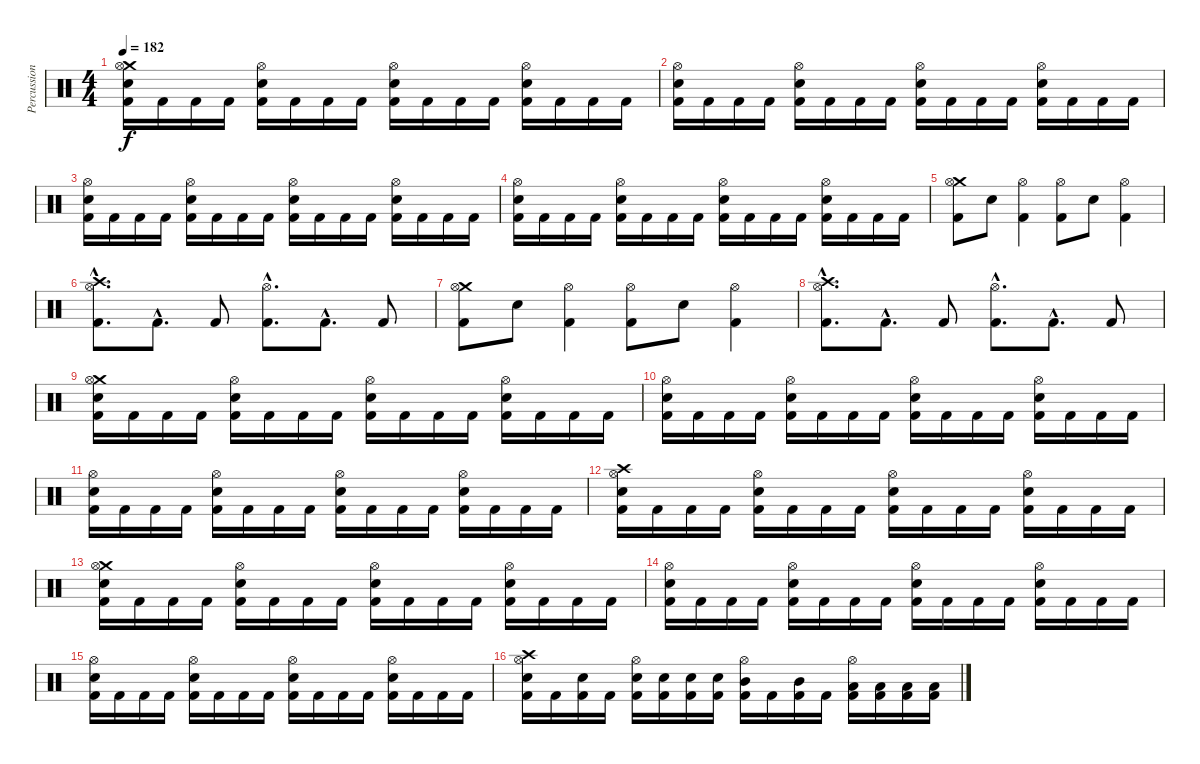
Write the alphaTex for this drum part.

\track ("Percussion" "Percussion") {instrument percussion}
\staff {score}
\articulation defaults
\ts (4 4)
\tempo 182
\clef neutral
\ks c
("Crash medium (hit)" "Hi-Hat (open)" "Electric Snare (hit)" "Kick (hit) 2").16{dy f} "Kick (hit) 2".16 "Kick (hit) 2".16 "Kick (hit) 2".16 ("Hi-Hat (open)" "Electric Snare (hit)" "Kick (hit) 2").16 "Kick (hit) 2".16 "Kick (hit) 2".16 "Kick (hit) 2".16 ("Hi-Hat (open)" "Electric Snare (hit)" "Kick (hit) 2").16 "Kick (hit) 2".16 "Kick (hit) 2".16 "Kick (hit) 2".16 ("Hi-Hat (open)" "Electric Snare (hit)" "Kick (hit) 2").16 "Kick (hit) 2".16 "Kick (hit) 2".16 "Kick (hit) 2".16 |
("Hi-Hat (open)" "Electric Snare (hit)" "Kick (hit) 2").16 "Kick (hit) 2".16 "Kick (hit) 2".16 "Kick (hit) 2".16 ("Hi-Hat (open)" "Electric Snare (hit)" "Kick (hit) 2").16 "Kick (hit) 2".16 "Kick (hit) 2".16 "Kick (hit) 2".16 ("Hi-Hat (open)" "Electric Snare (hit)" "Kick (hit) 2").16 "Kick (hit) 2".16 "Kick (hit) 2".16 "Kick (hit) 2".16 ("Hi-Hat (open)" "Electric Snare (hit)" "Kick (hit) 2").16 "Kick (hit) 2".16 "Kick (hit) 2".16 "Kick (hit) 2".16 |
("Hi-Hat (open)" "Electric Snare (hit)" "Kick (hit) 2").16 "Kick (hit) 2".16 "Kick (hit) 2".16 "Kick (hit) 2".16 ("Hi-Hat (open)" "Electric Snare (hit)" "Kick (hit) 2").16 "Kick (hit) 2".16 "Kick (hit) 2".16 "Kick (hit) 2".16 ("Hi-Hat (open)" "Electric Snare (hit)" "Kick (hit) 2").16 "Kick (hit) 2".16 "Kick (hit) 2".16 "Kick (hit) 2".16 ("Hi-Hat (open)" "Electric Snare (hit)" "Kick (hit) 2").16 "Kick (hit) 2".16 "Kick (hit) 2".16 "Kick (hit) 2".16 |
("Hi-Hat (open)" "Electric Snare (hit)" "Kick (hit) 2").16 "Kick (hit) 2".16 "Kick (hit) 2".16 "Kick (hit) 2".16 ("Hi-Hat (open)" "Electric Snare (hit)" "Kick (hit) 2").16 "Kick (hit) 2".16 "Kick (hit) 2".16 "Kick (hit) 2".16 ("Hi-Hat (open)" "Electric Snare (hit)" "Kick (hit) 2").16 "Kick (hit) 2".16 "Kick (hit) 2".16 "Kick (hit) 2".16 ("Hi-Hat (open)" "Electric Snare (hit)" "Kick (hit) 2").16 "Kick (hit) 2".16 "Kick (hit) 2".16 "Kick (hit) 2".16 |
("Crash medium (hit)" "Hi-Hat (open)" "Kick (hit) 2").8 "Electric Snare (hit)".8 ("Hi-Hat (open)" "Kick (hit) 2").4 ("Hi-Hat (open)" "Kick (hit) 2").8 "Electric Snare (hit)".8 ("Hi-Hat (open)" "Kick (hit) 2").4 |
("Crash high (hit)"{hac} "Hi-Hat (open)"{hac} "Kick (hit) 2"{hac}).8{d} "Kick (hit) 2"{hac}.8{d} "Kick (hit) 2".8 ("Hi-Hat (open)"{hac} "Kick (hit) 2"{hac}).8{d} "Kick (hit) 2"{hac}.8{d} "Kick (hit) 2".8 |
("Crash medium (hit)" "Hi-Hat (open)" "Kick (hit) 2").8 "Electric Snare (hit)".8 ("Hi-Hat (open)" "Kick (hit) 2").4 ("Hi-Hat (open)" "Kick (hit) 2").8 "Electric Snare (hit)".8 ("Hi-Hat (open)" "Kick (hit) 2").4 |
("Crash high (hit)"{hac} "Hi-Hat (open)"{hac} "Kick (hit) 2"{hac}).8{d} "Kick (hit) 2"{hac}.8{d} "Kick (hit) 2".8 ("Hi-Hat (open)"{hac} "Kick (hit) 2"{hac}).8{d} "Kick (hit) 2"{hac}.8{d} "Kick (hit) 2".8 |
("Crash medium (hit)" "Hi-Hat (open)" "Electric Snare (hit)" "Kick (hit) 2").16 "Kick (hit) 2".16 "Kick (hit) 2".16 "Kick (hit) 2".16 ("Hi-Hat (open)" "Electric Snare (hit)" "Kick (hit) 2").16 "Kick (hit) 2".16 "Kick (hit) 2".16 "Kick (hit) 2".16 ("Hi-Hat (open)" "Electric Snare (hit)" "Kick (hit) 2").16 "Kick (hit) 2".16 "Kick (hit) 2".16 "Kick (hit) 2".16 ("Hi-Hat (open)" "Electric Snare (hit)" "Kick (hit) 2").16 "Kick (hit) 2".16 "Kick (hit) 2".16 "Kick (hit) 2".16 |
("Hi-Hat (open)" "Electric Snare (hit)" "Kick (hit) 2").16 "Kick (hit) 2".16 "Kick (hit) 2".16 "Kick (hit) 2".16 ("Hi-Hat (open)" "Electric Snare (hit)" "Kick (hit) 2").16 "Kick (hit) 2".16 "Kick (hit) 2".16 "Kick (hit) 2".16 ("Hi-Hat (open)" "Electric Snare (hit)" "Kick (hit) 2").16 "Kick (hit) 2".16 "Kick (hit) 2".16 "Kick (hit) 2".16 ("Hi-Hat (open)" "Electric Snare (hit)" "Kick (hit) 2").16 "Kick (hit) 2".16 "Kick (hit) 2".16 "Kick (hit) 2".16 |
("Hi-Hat (open)" "Electric Snare (hit)" "Kick (hit) 2").16 "Kick (hit) 2".16 "Kick (hit) 2".16 "Kick (hit) 2".16 ("Hi-Hat (open)" "Electric Snare (hit)" "Kick (hit) 2").16 "Kick (hit) 2".16 "Kick (hit) 2".16 "Kick (hit) 2".16 ("Hi-Hat (open)" "Electric Snare (hit)" "Kick (hit) 2").16 "Kick (hit) 2".16 "Kick (hit) 2".16 "Kick (hit) 2".16 ("Hi-Hat (open)" "Electric Snare (hit)" "Kick (hit) 2").16 "Kick (hit) 2".16 "Kick (hit) 2".16 "Kick (hit) 2".16 |
("Crash high (hit)" "Hi-Hat (open)" "Electric Snare (hit)" "Kick (hit) 2").16 "Kick (hit) 2".16 "Kick (hit) 2".16 "Kick (hit) 2".16 ("Hi-Hat (open)" "Electric Snare (hit)" "Kick (hit) 2").16 "Kick (hit) 2".16 "Kick (hit) 2".16 "Kick (hit) 2".16 ("Hi-Hat (open)" "Electric Snare (hit)" "Kick (hit) 2").16 "Kick (hit) 2".16 "Kick (hit) 2".16 "Kick (hit) 2".16 ("Hi-Hat (open)" "Electric Snare (hit)" "Kick (hit) 2").16 "Kick (hit) 2".16 "Kick (hit) 2".16 "Kick (hit) 2".16 |
("Crash medium (hit)" "Hi-Hat (open)" "Electric Snare (hit)" "Kick (hit) 2").16 "Kick (hit) 2".16 "Kick (hit) 2".16 "Kick (hit) 2".16 ("Hi-Hat (open)" "Electric Snare (hit)" "Kick (hit) 2").16 "Kick (hit) 2".16 "Kick (hit) 2".16 "Kick (hit) 2".16 ("Hi-Hat (open)" "Electric Snare (hit)" "Kick (hit) 2").16 "Kick (hit) 2".16 "Kick (hit) 2".16 "Kick (hit) 2".16 ("Hi-Hat (open)" "Electric Snare (hit)" "Kick (hit) 2").16 "Kick (hit) 2".16 "Kick (hit) 2".16 "Kick (hit) 2".16 |
("Hi-Hat (open)" "Electric Snare (hit)" "Kick (hit) 2").16 "Kick (hit) 2".16 "Kick (hit) 2".16 "Kick (hit) 2".16 ("Hi-Hat (open)" "Electric Snare (hit)" "Kick (hit) 2").16 "Kick (hit) 2".16 "Kick (hit) 2".16 "Kick (hit) 2".16 ("Hi-Hat (open)" "Electric Snare (hit)" "Kick (hit) 2").16 "Kick (hit) 2".16 "Kick (hit) 2".16 "Kick (hit) 2".16 ("Hi-Hat (open)" "Electric Snare (hit)" "Kick (hit) 2").16 "Kick (hit) 2".16 "Kick (hit) 2".16 "Kick (hit) 2".16 |
("Hi-Hat (open)" "Electric Snare (hit)" "Kick (hit) 2").16 "Kick (hit) 2".16 "Kick (hit) 2".16 "Kick (hit) 2".16 ("Hi-Hat (open)" "Electric Snare (hit)" "Kick (hit) 2").16 "Kick (hit) 2".16 "Kick (hit) 2".16 "Kick (hit) 2".16 ("Hi-Hat (open)" "Electric Snare (hit)" "Kick (hit) 2").16 "Kick (hit) 2".16 "Kick (hit) 2".16 "Kick (hit) 2".16 ("Hi-Hat (open)" "Electric Snare (hit)" "Kick (hit) 2").16 "Kick (hit) 2".16 "Kick (hit) 2".16 "Kick (hit) 2".16 |
("Crash high (hit)" "Hi-Hat (open)" "Electric Snare (hit)" "Kick (hit) 2").16 "Kick (hit) 2".16 ("Electric Snare (hit)" "Kick (hit) 2").16 "Kick (hit) 2".16 ("Hi-Hat (open)" "Electric Snare (hit)" "Kick (hit) 2").16 ("Electric Snare (hit)" "Kick (hit) 2").16 ("Electric Snare (hit)" "Kick (hit) 2").16 ("Electric Snare (hit)" "Kick (hit) 2").16 ("Hi-Hat (open)" "Mid Tom (hit)" "Kick (hit) 2").16 "Kick (hit) 2".16 ("Mid Tom (hit)" "Kick (hit) 2").16 "Kick (hit) 2".16 ("Hi-Hat (open)" "Low Tom (hit)" "Kick (hit) 2").16 ("Low Tom (hit)" "Kick (hit) 2").16 ("Low Tom (hit)" "Kick (hit) 2").16 ("Low Tom (hit)" "Kick (hit) 2").16
